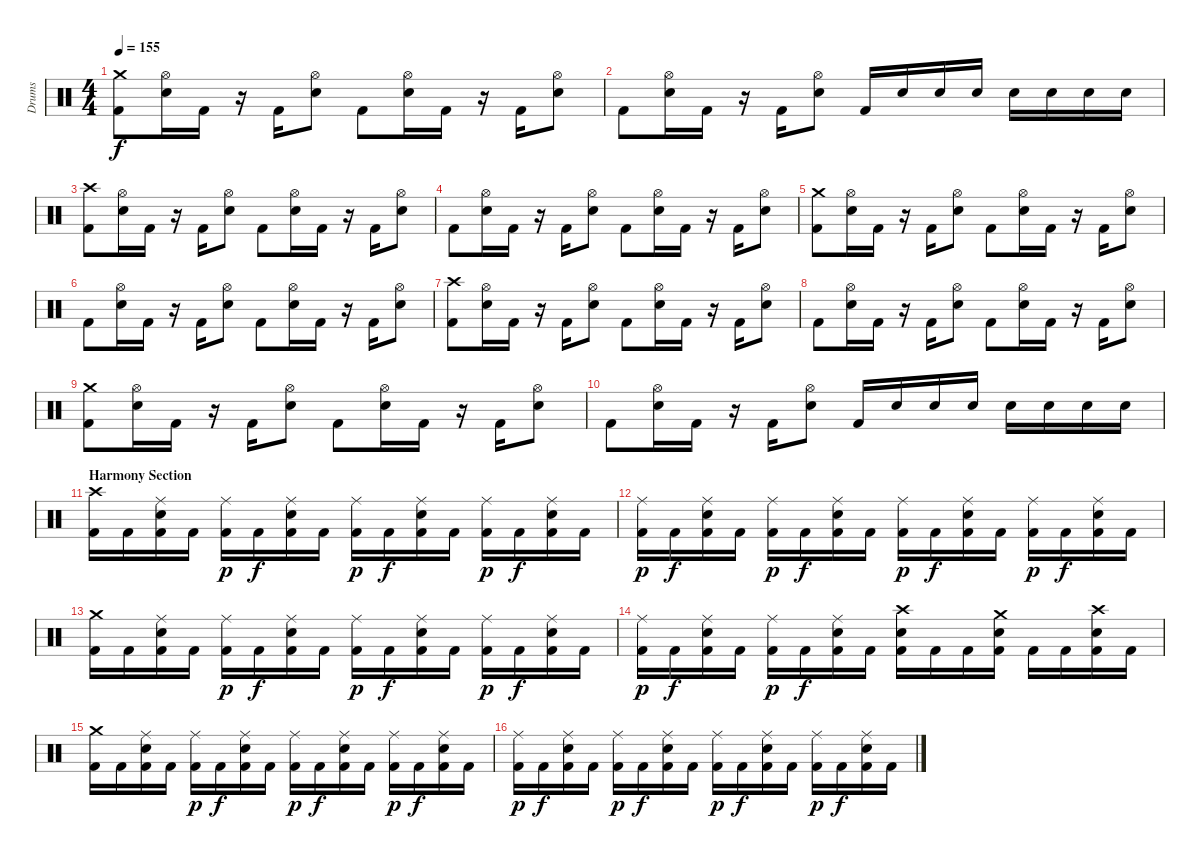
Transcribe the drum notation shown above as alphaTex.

\track ("Drums" "Drums") {instrument percussion}
\staff {score}
\articulation defaults
\ts (4 4)
\tempo 155
\clef neutral
\ks c
("Crash medium (hit)" "Kick (hit) 2").8{dy f} ("Hi-Hat (open)" "Snare (hit) 2").16 "Kick (hit) 2".16 r.16 "Kick (hit) 2".16 ("Hi-Hat (open)" "Snare (hit) 2").8 "Kick (hit) 2".8 ("Hi-Hat (open)" "Snare (hit) 2").16 "Kick (hit) 2".16 r.16 "Kick (hit) 2".16 ("Hi-Hat (open)" "Snare (hit) 2").8 |
"Kick (hit) 2".8 ("Hi-Hat (open)" "Snare (hit) 2").16 "Kick (hit) 2".16 r.16 "Kick (hit) 2".16 ("Hi-Hat (open)" "Snare (hit) 2").8 "Kick (hit) 2".16 "Snare (hit) 2".16 "Snare (hit) 2".16 "Snare (hit) 2".16 "Snare (hit) 2".16 "Snare (hit) 2".16 "Snare (hit) 2".16 "Snare (hit) 2".16 |
("Crash high (hit)" "Kick (hit) 2").8 ("Hi-Hat (open)" "Snare (hit) 2").16 "Kick (hit) 2".16 r.16 "Kick (hit) 2".16 ("Hi-Hat (open)" "Snare (hit) 2").8 "Kick (hit) 2".8 ("Hi-Hat (open)" "Snare (hit) 2").16 "Kick (hit) 2".16 r.16 "Kick (hit) 2".16 ("Hi-Hat (open)" "Snare (hit) 2").8 |
"Kick (hit) 2".8 ("Hi-Hat (open)" "Snare (hit) 2").16 "Kick (hit) 2".16 r.16 "Kick (hit) 2".16 ("Hi-Hat (open)" "Snare (hit) 2").8 "Kick (hit) 2".8 ("Hi-Hat (open)" "Snare (hit) 2").16 "Kick (hit) 2".16 r.16 "Kick (hit) 2".16 ("Hi-Hat (open)" "Snare (hit) 2").8 |
("Crash medium (hit)" "Kick (hit) 2").8 ("Hi-Hat (open)" "Snare (hit) 2").16 "Kick (hit) 2".16 r.16 "Kick (hit) 2".16 ("Hi-Hat (open)" "Snare (hit) 2").8 "Kick (hit) 2".8 ("Hi-Hat (open)" "Snare (hit) 2").16 "Kick (hit) 2".16 r.16 "Kick (hit) 2".16 ("Hi-Hat (open)" "Snare (hit) 2").8 |
"Kick (hit) 2".8 ("Hi-Hat (open)" "Snare (hit) 2").16 "Kick (hit) 2".16 r.16 "Kick (hit) 2".16 ("Hi-Hat (open)" "Snare (hit) 2").8 "Kick (hit) 2".8 ("Hi-Hat (open)" "Snare (hit) 2").16 "Kick (hit) 2".16 r.16 "Kick (hit) 2".16 ("Hi-Hat (open)" "Snare (hit) 2").8 |
("Crash high (hit)" "Kick (hit) 2").8 ("Hi-Hat (open)" "Snare (hit) 2").16 "Kick (hit) 2".16 r.16 "Kick (hit) 2".16 ("Hi-Hat (open)" "Snare (hit) 2").8 "Kick (hit) 2".8 ("Hi-Hat (open)" "Snare (hit) 2").16 "Kick (hit) 2".16 r.16 "Kick (hit) 2".16 ("Hi-Hat (open)" "Snare (hit) 2").8 |
"Kick (hit) 2".8 ("Hi-Hat (open)" "Snare (hit) 2").16 "Kick (hit) 2".16 r.16 "Kick (hit) 2".16 ("Hi-Hat (open)" "Snare (hit) 2").8 "Kick (hit) 2".8 ("Hi-Hat (open)" "Snare (hit) 2").16 "Kick (hit) 2".16 r.16 "Kick (hit) 2".16 ("Hi-Hat (open)" "Snare (hit) 2").8 |
("Crash medium (hit)" "Kick (hit) 2").8 ("Hi-Hat (open)" "Snare (hit) 2").16 "Kick (hit) 2".16 r.16 "Kick (hit) 2".16 ("Hi-Hat (open)" "Snare (hit) 2").8 "Kick (hit) 2".8 ("Hi-Hat (open)" "Snare (hit) 2").16 "Kick (hit) 2".16 r.16 "Kick (hit) 2".16 ("Hi-Hat (open)" "Snare (hit) 2").8 |
"Kick (hit) 2".8 ("Hi-Hat (open)" "Snare (hit) 2").16 "Kick (hit) 2".16 r.16 "Kick (hit) 2".16 ("Hi-Hat (open)" "Snare (hit) 2").8 "Kick (hit) 2".16 "Snare (hit) 2".16 "Snare (hit) 2".16 "Snare (hit) 2".16 "Snare (hit) 2".16 "Snare (hit) 2".16 "Snare (hit) 2".16 "Snare (hit) 2".16 |
\section ("" "Harmony Section")
("Crash high (hit)" "Kick (hit) 2").16 "Kick (hit) 2".16 ("Ride (middle)" "Snare (hit) 2" "Kick (hit) 2").16 "Kick (hit) 2".16 ("Ride (middle)" "Kick (hit) 2").16{dy p} "Kick (hit) 2".16{dy f} ("Ride (middle)" "Snare (hit) 2" "Kick (hit) 2").16 "Kick (hit) 2".16 ("Ride (middle)" "Kick (hit) 2").16{dy p} "Kick (hit) 2".16{dy f} ("Ride (middle)" "Snare (hit) 2" "Kick (hit) 2").16 "Kick (hit) 2".16 ("Ride (middle)" "Kick (hit) 2").16{dy p} "Kick (hit) 2".16{dy f} ("Ride (middle)" "Snare (hit) 2" "Kick (hit) 2").16 "Kick (hit) 2".16 |
("Ride (middle)" "Kick (hit) 2").16{dy p} "Kick (hit) 2".16{dy f} ("Ride (middle)" "Snare (hit) 2" "Kick (hit) 2").16 "Kick (hit) 2".16 ("Ride (middle)" "Kick (hit) 2").16{dy p} "Kick (hit) 2".16{dy f} ("Ride (middle)" "Snare (hit) 2" "Kick (hit) 2").16 "Kick (hit) 2".16 ("Ride (middle)" "Kick (hit) 2").16{dy p} "Kick (hit) 2".16{dy f} ("Ride (middle)" "Snare (hit) 2" "Kick (hit) 2").16 "Kick (hit) 2".16 ("Ride (middle)" "Kick (hit) 2").16{dy p} "Kick (hit) 2".16{dy f} ("Ride (middle)" "Snare (hit) 2" "Kick (hit) 2").16 "Kick (hit) 2".16 |
("Crash medium (hit)" "Kick (hit) 2").16 "Kick (hit) 2".16 ("Ride (middle)" "Snare (hit) 2" "Kick (hit) 2").16 "Kick (hit) 2".16 ("Ride (middle)" "Kick (hit) 2").16{dy p} "Kick (hit) 2".16{dy f} ("Ride (middle)" "Snare (hit) 2" "Kick (hit) 2").16 "Kick (hit) 2".16 ("Ride (middle)" "Kick (hit) 2").16{dy p} "Kick (hit) 2".16{dy f} ("Ride (middle)" "Snare (hit) 2" "Kick (hit) 2").16 "Kick (hit) 2".16 ("Ride (middle)" "Kick (hit) 2").16{dy p} "Kick (hit) 2".16{dy f} ("Ride (middle)" "Snare (hit) 2" "Kick (hit) 2").16 "Kick (hit) 2".16 |
("Ride (middle)" "Kick (hit) 2").16{dy p} "Kick (hit) 2".16{dy f} ("Ride (middle)" "Snare (hit) 2" "Kick (hit) 2").16 "Kick (hit) 2".16 ("Ride (middle)" "Kick (hit) 2").16{dy p} "Kick (hit) 2".16{dy f} ("Ride (middle)" "Snare (hit) 2" "Kick (hit) 2").16 "Kick (hit) 2".16 ("Crash high (hit)" "Snare (hit) 2" "Kick (hit) 2").16 "Kick (hit) 2".16 "Kick (hit) 2".16 ("Crash medium (hit)" "Snare (hit) 2" "Kick (hit) 2").16 "Kick (hit) 2".16 "Kick (hit) 2".16 ("Crash high (hit)" "Snare (hit) 2" "Kick (hit) 2").16 "Kick (hit) 2".16 |
("Crash medium (hit)" "Kick (hit) 2").16 "Kick (hit) 2".16 ("Ride (middle)" "Snare (hit) 2" "Kick (hit) 2").16 "Kick (hit) 2".16 ("Ride (middle)" "Kick (hit) 2").16{dy p} "Kick (hit) 2".16{dy f} ("Ride (middle)" "Snare (hit) 2" "Kick (hit) 2").16 "Kick (hit) 2".16 ("Ride (middle)" "Kick (hit) 2").16{dy p} "Kick (hit) 2".16{dy f} ("Ride (middle)" "Snare (hit) 2" "Kick (hit) 2").16 "Kick (hit) 2".16 ("Ride (middle)" "Kick (hit) 2").16{dy p} "Kick (hit) 2".16{dy f} ("Ride (middle)" "Snare (hit) 2" "Kick (hit) 2").16 "Kick (hit) 2".16 |
("Ride (middle)" "Kick (hit) 2").16{dy p} "Kick (hit) 2".16{dy f} ("Ride (middle)" "Snare (hit) 2" "Kick (hit) 2").16 "Kick (hit) 2".16 ("Ride (middle)" "Kick (hit) 2").16{dy p} "Kick (hit) 2".16{dy f} ("Ride (middle)" "Snare (hit) 2" "Kick (hit) 2").16 "Kick (hit) 2".16 ("Ride (middle)" "Kick (hit) 2").16{dy p} "Kick (hit) 2".16{dy f} ("Ride (middle)" "Snare (hit) 2" "Kick (hit) 2").16 "Kick (hit) 2".16 ("Ride (middle)" "Kick (hit) 2").16{dy p} "Kick (hit) 2".16{dy f} ("Ride (middle)" "Snare (hit) 2" "Kick (hit) 2").16 "Kick (hit) 2".16
